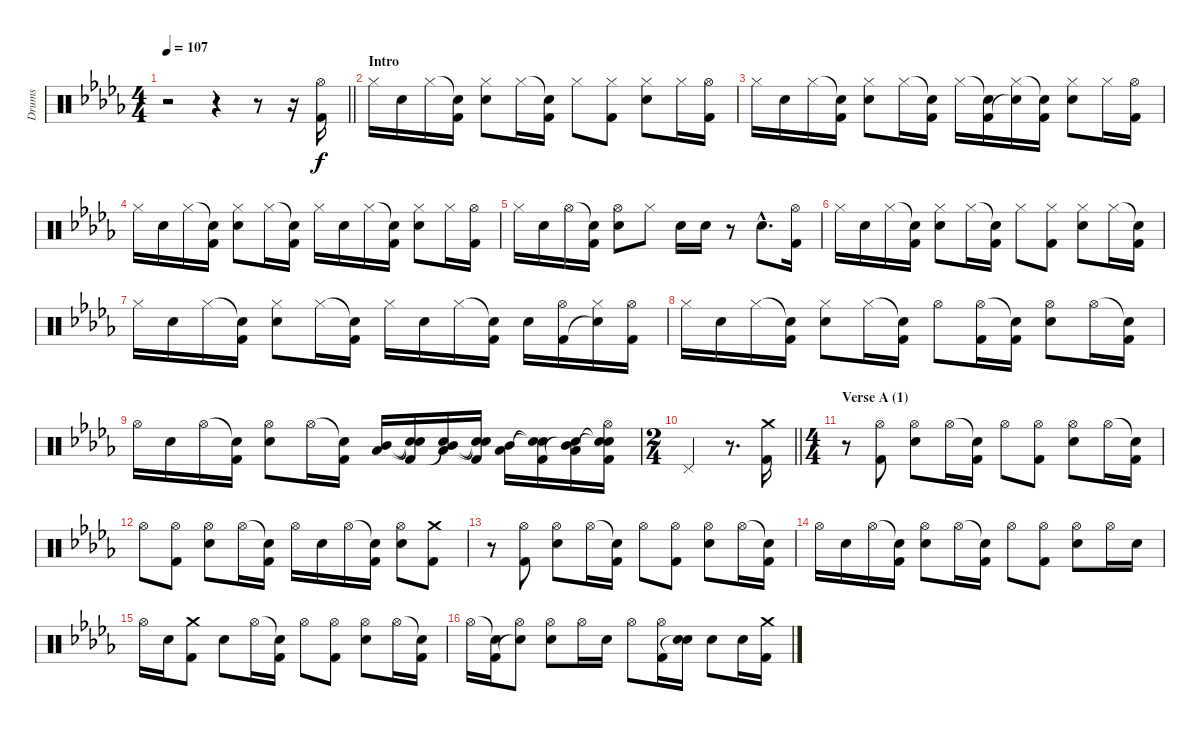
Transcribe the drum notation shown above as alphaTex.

\track ("Drums" "Drums") {instrument percussion}
\staff {score}
\articulation defaults
\ts (4 4)
\tempo 107
\clef neutral
\barLineRight lightlight
\ks bbminor
r.2{dy f} r.4 r.8 r.16 ("Hi-Hat (open)" "Kick (hit) 2").16 |
\section ("" "Intro")
"Hi-Hat (closed)".16 "Electric Snare (hit)".16 "Hi-Hat (closed)".16 ("Snare (hit)"{t} "Kick (hit) 2").16 ("Hi-Hat (closed)" "Electric Snare (hit)").8 "Hi-Hat (closed)".16 ("Snare (hit)"{t} "Kick (hit) 2").16 "Hi-Hat (closed)".8 ("Hi-Hat (closed)" "Kick (hit) 2").8 ("Hi-Hat (closed)" "Electric Snare (hit)").8 "Hi-Hat (closed)".16 ("Hi-Hat (open)" "Kick (hit) 2").16 |
"Hi-Hat (closed)".16 "Electric Snare (hit)".16 "Hi-Hat (closed)".16 ("Snare (hit)"{t} "Kick (hit) 2").16 ("Hi-Hat (closed)" "Electric Snare (hit)").8 "Hi-Hat (closed)".16 ("Snare (hit)"{t} "Kick (hit) 2").16 "Hi-Hat (closed)".16 ("Snare (hit)"{t} "Kick (hit) 2").16 ("Hi-Hat (closed)" "Snare (hit)"{t}).16 ("Snare (hit)"{t} "Kick (hit) 2").16 ("Hi-Hat (closed)" "Electric Snare (hit)").8 "Hi-Hat (closed)".16 ("Hi-Hat (open)" "Kick (hit) 2").16 |
"Hi-Hat (closed)".16 "Electric Snare (hit)".16 "Hi-Hat (closed)".16 ("Snare (hit)"{t} "Kick (hit) 2").16 ("Hi-Hat (closed)" "Electric Snare (hit)").8 "Hi-Hat (closed)".16 ("Snare (hit)"{t} "Kick (hit) 2").16 "Hi-Hat (closed)".16 "Electric Snare (hit)".16 "Hi-Hat (closed)".16 ("Snare (hit)"{t} "Kick (hit) 2").16 ("Hi-Hat (closed)" "Electric Snare (hit)").8 "Hi-Hat (closed)".16 ("Hi-Hat (open)" "Kick (hit) 2").16 |
"Hi-Hat (closed)".16 "Electric Snare (hit)".16 "Hi-Hat (open)".16 ("Snare (hit)"{t} "Kick (hit) 2").16 ("Hi-Hat (open)" "Electric Snare (hit)").8 "Hi-Hat (closed)".8 "Electric Snare (hit)".16 "Electric Snare (hit)".16 r.8 "Electric Snare (hit)"{hac}.8{d} ("Hi-Hat (open)" "Kick (hit) 2").16 |
"Hi-Hat (closed)".16 "Electric Snare (hit)".16 "Hi-Hat (closed)".16 ("Snare (hit)"{t} "Kick (hit) 2").16 ("Hi-Hat (closed)" "Electric Snare (hit)").8 "Hi-Hat (closed)".16 ("Snare (hit)"{t} "Kick (hit) 2").16 "Hi-Hat (closed)".8 ("Hi-Hat (closed)" "Kick (hit) 2").8 ("Hi-Hat (closed)" "Electric Snare (hit)").8 "Hi-Hat (closed)".16 ("Snare (hit)"{t} "Kick (hit) 2").16 |
"Hi-Hat (closed)".16 "Electric Snare (hit)".16 "Hi-Hat (closed)".16 ("Snare (hit)"{t} "Kick (hit) 2").16 ("Hi-Hat (closed)" "Electric Snare (hit)").8 "Hi-Hat (closed)".16 ("Snare (hit)"{t} "Kick (hit) 2").16 "Hi-Hat (closed)".16 "Electric Snare (hit)".16 "Hi-Hat (closed)".16 ("Snare (hit)"{t} "Kick (hit) 2").16 "Electric Snare (hit)".16 ("Hi-Hat (open)" "Kick (hit) 2").16 ("Hi-Hat (closed)" "Snare (hit)"{t}).16 ("Hi-Hat (open)" "Kick (hit) 2").16 |
"Hi-Hat (closed)".16 "Electric Snare (hit)".16 "Hi-Hat (closed)".16 ("Snare (hit)"{t} "Kick (hit) 2").16 ("Hi-Hat (closed)" "Electric Snare (hit)").8 "Hi-Hat (closed)".16 ("Snare (hit)"{t} "Kick (hit) 2").16 "Hi-Hat (open)".8 ("Hi-Hat (open)" "Kick (hit) 2").16 ("Snare (hit)"{t} "Kick (hit) 2").16 ("Hi-Hat (open)" "Electric Snare (hit)").8 "Hi-Hat (open)".16 ("Snare (hit)"{t} "Kick (hit) 2").16 |
"Hi-Hat (open)".16 "Electric Snare (hit)".16 "Hi-Hat (open)".16 ("Snare (hit)"{t} "Kick (hit) 2").16 ("Hi-Hat (open)" "Electric Snare (hit)").8 "Hi-Hat (open)".16 ("Snare (hit)"{t} "Kick (hit) 2").16 ("Mid Tom (hit)" "Low Floor Tom (hit)").16 ("Snare (hit)"{t} "Snare (hit)"{t} "Kick (hit) 2").16 ("Mid Tom (hit)" "Low Floor Tom (hit)" "Snare (hit)"{t}).16 ("Snare (hit)"{t} "Snare (hit)"{t} "Kick (hit) 2").16 ("Mid Tom (hit)" "Low Floor Tom (hit)").16 ("Snare (hit)"{t} "Snare (hit)"{t} "Kick (hit) 2").16 ("Mid Tom (hit)" "Low Floor Tom (hit)" "Snare (hit)"{t}).16 ("Hi-Hat (open)" "Snare (hit)"{t} "Snare (hit)"{t} "Kick (hit) 2").16 |
\ts (2 4)
\barLineRight lightlight "Pedal Hi-Hat (hit)".4
r.8{d} ("Crash medium (hit)" "Kick (hit) 2").16 |
\ts (4 4)
\section ("" "Verse A (1)")
r.8 ("Hi-Hat (open)" "Kick (hit) 2").8 ("Hi-Hat (open)" "Electric Snare (hit)").8 "Hi-Hat (open)".16 ("Snare (hit)"{t} "Kick (hit) 2").16 "Hi-Hat (open)".8 ("Hi-Hat (open)" "Kick (hit) 2").8 ("Hi-Hat (open)" "Electric Snare (hit)").8 "Hi-Hat (open)".16 ("Snare (hit)"{t} "Kick (hit) 2").16 |
"Hi-Hat (open)".8 ("Hi-Hat (open)" "Kick (hit) 2").8 ("Hi-Hat (open)" "Electric Snare (hit)").8 "Hi-Hat (open)".16 ("Snare (hit)"{t} "Kick (hit) 2").16 "Hi-Hat (open)".16 "Electric Snare (hit)".16 "Hi-Hat (open)".16 ("Snare (hit)"{t} "Kick (hit) 2").16 ("Hi-Hat (open)" "Electric Snare (hit)").8 ("Crash medium (hit)" "Kick (hit) 2").8 |
r.8 ("Hi-Hat (open)" "Kick (hit) 2").8 ("Hi-Hat (open)" "Electric Snare (hit)").8 "Hi-Hat (open)".16 ("Snare (hit)"{t} "Kick (hit) 2").16 "Hi-Hat (open)".8 ("Hi-Hat (open)" "Kick (hit) 2").8 ("Hi-Hat (open)" "Electric Snare (hit)").8 "Hi-Hat (open)".16 ("Snare (hit)"{t} "Kick (hit) 2").16 |
"Hi-Hat (open)".16 "Electric Snare (hit)".16 "Hi-Hat (open)".16 ("Snare (hit)"{t} "Kick (hit) 2").16 ("Hi-Hat (open)" "Electric Snare (hit)").8 "Hi-Hat (open)".16 ("Snare (hit)"{t} "Kick (hit) 2").16 "Hi-Hat (open)".8 ("Hi-Hat (open)" "Kick (hit) 2").8 ("Hi-Hat (open)" "Electric Snare (hit)").8 "Hi-Hat (open)".16 "Electric Snare (hit)".16 |
"Hi-Hat (open)".16 "Electric Snare (hit)".16 ("Crash medium (hit)" "Kick (hit) 2").8 "Electric Snare (hit)".8 "Hi-Hat (open)".16 ("Snare (hit)"{t} "Kick (hit) 2").16 "Hi-Hat (open)".8 ("Hi-Hat (open)" "Kick (hit) 2").8 ("Hi-Hat (open)" "Electric Snare (hit)").8 "Hi-Hat (open)".16 ("Snare (hit)"{t} "Kick (hit) 2").16 |
"Hi-Hat (open)".16 ("Snare (hit)"{t} "Kick (hit) 2").16 ("Hi-Hat (open)" "Snare (hit)"{t}).8 ("Hi-Hat (open)" "Electric Snare (hit)").8 "Hi-Hat (open)".16 "Electric Snare (hit)".16 "Hi-Hat (open)".8 ("Hi-Hat (open)" "Kick (hit) 2").16 ("Electric Snare (hit)" "Snare (hit)"{t}).16 "Electric Snare (hit)".8 "Electric Snare (hit)".16 ("Crash medium (hit)" "Kick (hit) 2").16
